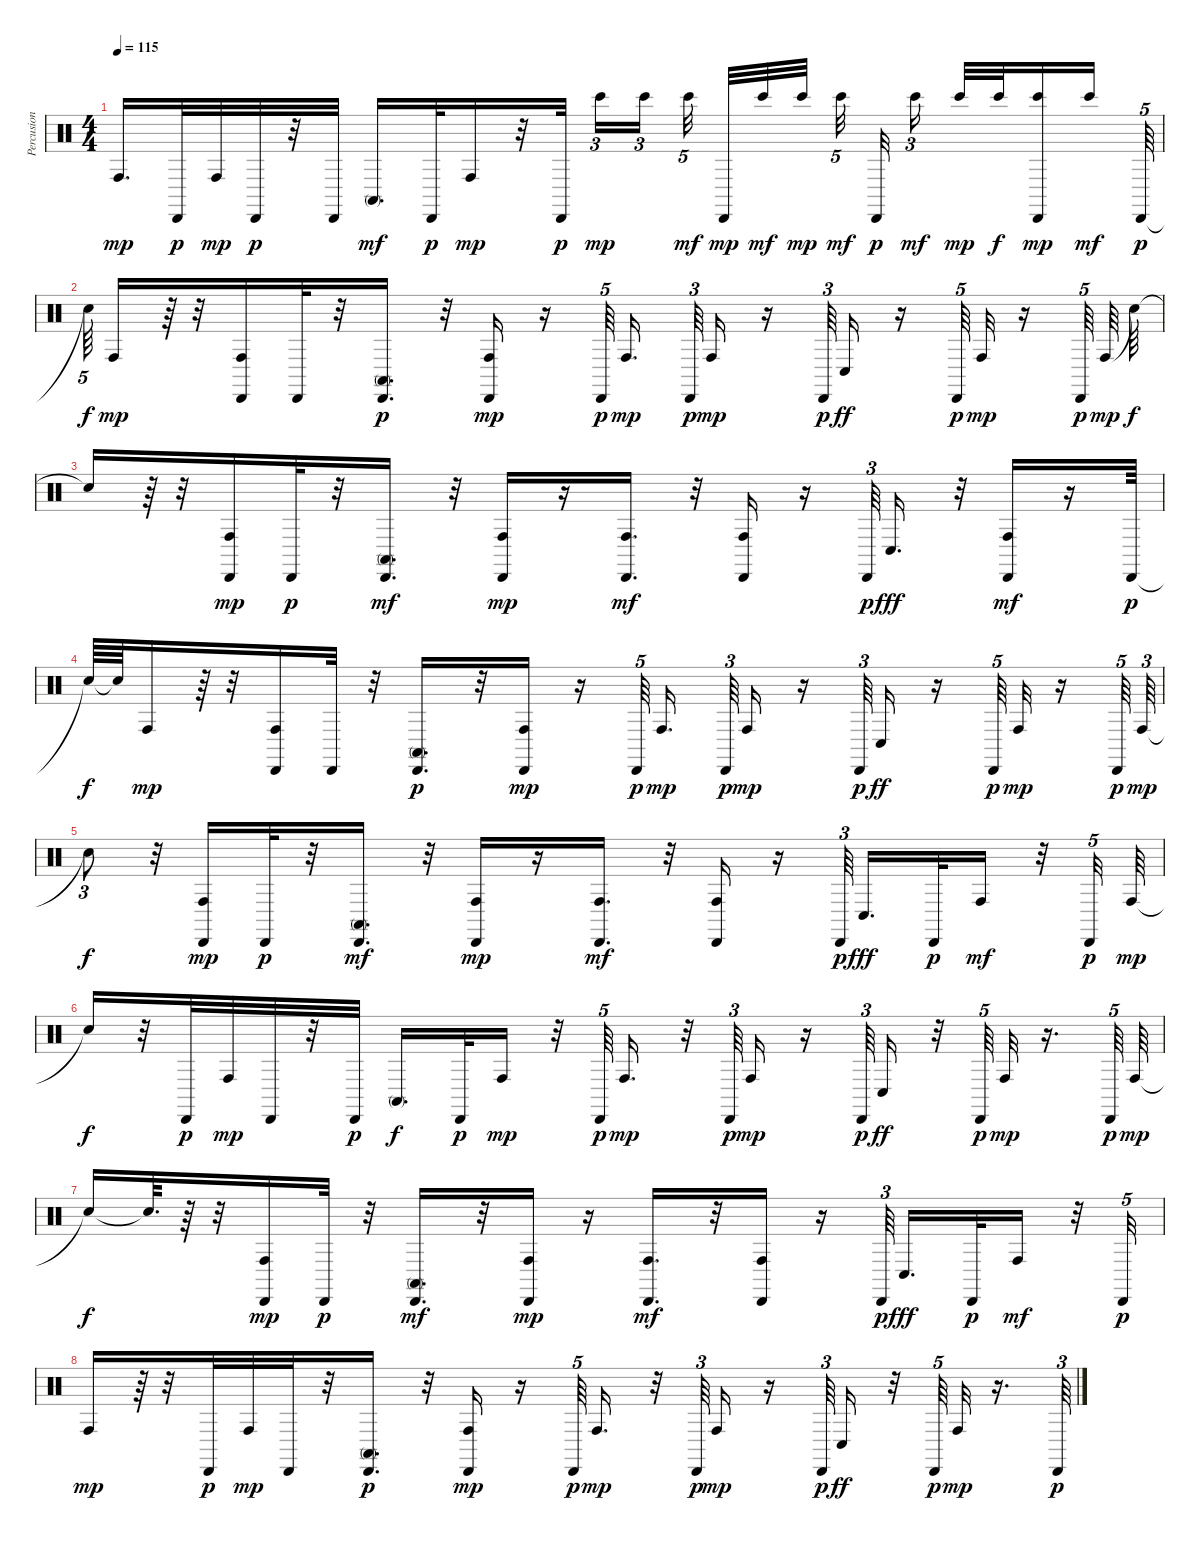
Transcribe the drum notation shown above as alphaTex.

\track ("Percusion" "Percusion") {instrument percussion}
\staff {score}
\articulation defaults
\ts (4 4)
\tempo 115
\clef neutral
\ks c "Conga high (hit)".16{d dy mp} "Cabasa (hit)".32{dy p} "Conga high (hit)".32{dy mp} "Cabasa (hit)".32{dy p}
r.32 "Cabasa (hit)".32 "Conga high (mute)".16{d dy mf} "Cabasa (hit)".32{dy p} "Conga high (hit)".16{dy mp} r.32 "Cabasa (hit)".32{dy p} "Bongo High (hit)".16{tu (3 2) dy mp} "Bongo High (hit)".16{tu (3 2)} "Bongo High (hit)".32{tu (5 4) dy mf beam splitsecondary} "Cabasa (hit)".32{dy mp} "Bongo High (hit)".32{dy mf} "Bongo High (hit)".32{dy mp beam splitsecondary} "Bongo High (hit)".32{tu (5 4) dy mf} "Cabasa (hit)".32{dy p} "Bongo High (hit)".16{tu (3 2) dy mf beam splitsecondary} "Bongo High (hit)".32{dy mp} "Bongo High (hit)".32{dy f} ("Cabasa (hit)" "Bongo High (hit)").16{dy mp} "Bongo High (hit)".16{dy mf beam splitsecondary} "Cabasa (hit)".64{tu (5 4) dy p} |
"Snare (hit)"{t}.64{tu (5 4) dy f} "Conga high (hit)".16{dy mp} r.64 r.32 ("Cabasa (hit)" "Conga high (hit)").16 "Cabasa (hit)".32 r.32 ("Cabasa (hit)" "Conga high (mute)").16{d dy p} r.32 ("Cabasa (hit)" "Conga high (hit)").16{dy mp} r.16 "Cabasa (hit)".64{tu (5 4) dy p} "Conga high (hit)".16{d dy mp beam splitsecondary} "Cabasa (hit)".64{tu (3 2) dy p} "Conga high (hit)".16{dy mp} r.16 "Cabasa (hit)".64{tu (3 2) dy p} "Conga low (hit)".16{dy ff} r.16 "Cabasa (hit)".64{tu (5 4) dy p} "Conga high (hit)".32{dy mp} r.16 "Cabasa (hit)".64{tu (5 4) dy p} "Conga high (hit)".64{dy mp} "Snare (hit)"{t}.64{dy f} |
"Snare (hit)"{t}.16 r.64 r.32 ("Cabasa (hit)" "Conga high (hit)").16{dy mp} "Cabasa (hit)".32{dy p} r.32 ("Cabasa (hit)" "Conga high (mute)").16{d dy mf} r.32 ("Cabasa (hit)" "Conga high (hit)").16{dy mp} r.16 ("Cabasa (hit)" "Conga high (hit)").16{d dy mf} r.32 ("Cabasa (hit)" "Conga high (hit)").16 r.16 "Cabasa (hit)".64{tu (3 2) dy p} "Conga low (hit)".16{d dy fff} r.32 ("Cabasa (hit)" "Conga high (hit)").16{dy mf} r.16 "Cabasa (hit)".64{dy p} |
"Snare (hit)"{t}.64{dy f} "Snare (hit)"{t}.64 "Conga high (hit)".16{dy mp} r.64 r.32 ("Cabasa (hit)" "Conga high (hit)").16 "Cabasa (hit)".32 r.32 ("Cabasa (hit)" "Conga high (mute)").16{d dy p} r.32 ("Cabasa (hit)" "Conga high (hit)").16{dy mp} r.16 "Cabasa (hit)".64{tu (5 4) dy p beam splitsecondary} "Conga high (hit)".16{d dy mp beam splitsecondary} "Cabasa (hit)".64{tu (3 2) dy p} "Conga high (hit)".16{dy mp} r.16 "Cabasa (hit)".64{tu (3 2) dy p} "Conga low (hit)".16{dy ff} r.16 "Cabasa (hit)".64{tu (5 4) dy p} "Conga high (hit)".32{dy mp} r.16 "Cabasa (hit)".64{tu (5 4) dy p} "Conga high (hit)".64{tu (3 2) dy mp} |
"Snare (hit)"{t}.8{tu (3 2) dy f} r.32 ("Cabasa (hit)" "Conga high (hit)").16{dy mp} "Cabasa (hit)".32{dy p} r.32 ("Cabasa (hit)" "Conga high (mute)").16{d dy mf} r.32 ("Cabasa (hit)" "Conga high (hit)").16{dy mp} r.16 ("Cabasa (hit)" "Conga high (hit)").16{d dy mf} r.32 ("Cabasa (hit)" "Conga high (hit)").16 r.16 "Cabasa (hit)".64{tu (3 2) dy p} "Conga low (hit)".16{d dy fff} "Cabasa (hit)".32{dy p} "Conga high (hit)".16{dy mf} r.32 "Cabasa (hit)".32{tu (5 4) dy p} "Conga high (hit)".64{dy mp} |
"Snare (hit)"{t}.16{dy f} r.32 "Cabasa (hit)".32{dy p} "Conga high (hit)".32{dy mp} "Cabasa (hit)".32 r.32 "Cabasa (hit)".32{dy p} "Conga high (mute)".16{d dy f} "Cabasa (hit)".32{dy p} "Conga high (hit)".16{dy mp} r.32 "Cabasa (hit)".64{tu (5 4) dy p} "Conga high (hit)".16{d dy mp} r.32 "Cabasa (hit)".64{tu (3 2) dy p} "Conga high (hit)".16{dy mp} r.16 "Cabasa (hit)".64{tu (3 2) dy p} "Conga low (hit)".16{dy ff} r.32 "Cabasa (hit)".64{tu (5 4) dy p} "Conga high (hit)".32{dy mp} r.16{d} "Cabasa (hit)".64{tu (5 4) dy p} "Conga high (hit)".64{dy mp} |
"Snare (hit)"{t}.16{dy f} "Snare (hit)"{t}.64{d} r.64 r.32 ("Cabasa (hit)" "Conga high (hit)").16{dy mp} "Cabasa (hit)".32{dy p} r.32 ("Cabasa (hit)" "Conga high (mute)").16{d dy mf} r.32 ("Cabasa (hit)" "Conga high (hit)").16{dy mp} r.16 ("Cabasa (hit)" "Conga high (hit)").16{d dy mf} r.32 ("Cabasa (hit)" "Conga high (hit)").16 r.16 "Cabasa (hit)".64{tu (3 2) dy p beam splitsecondary} "Conga low (hit)".16{d dy fff} "Cabasa (hit)".32{dy p} "Conga high (hit)".16{dy mf} r.32 "Cabasa (hit)".32{tu (5 4) dy p} |
"Conga high (hit)".16{dy mp} r.64 r.32 "Cabasa (hit)".32{dy p} "Conga high (hit)".32{dy mp} "Cabasa (hit)".32 r.32 ("Cabasa (hit)" "Conga high (mute)").16{d dy p} r.32 ("Cabasa (hit)" "Conga high (hit)").16{dy mp} r.16 "Cabasa (hit)".64{tu (5 4) dy p} "Conga high (hit)".16{d dy mp} r.32 "Cabasa (hit)".64{tu (3 2) dy p} "Conga high (hit)".16{dy mp} r.16 "Cabasa (hit)".64{tu (3 2) dy p} "Conga low (hit)".16{dy ff} r.32 "Cabasa (hit)".64{tu (5 4) dy p} "Conga high (hit)".32{dy mp} r.16{d} "Cabasa (hit)".64{tu (3 2) dy p}
